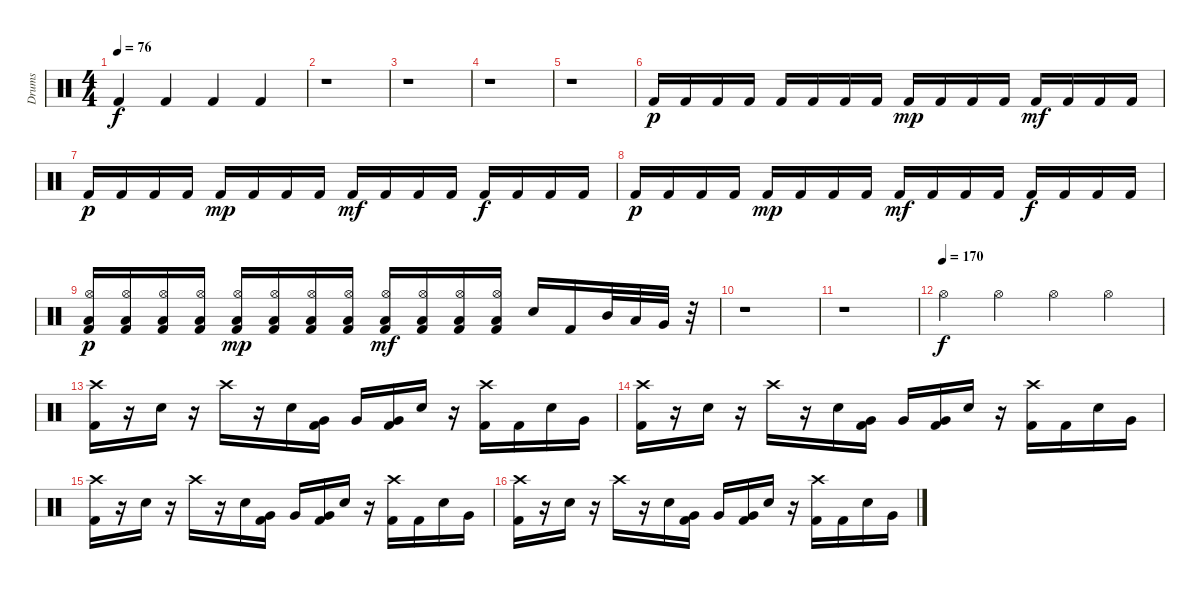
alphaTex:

\track ("Drums" "Drums") {instrument percussion}
\staff {score}
\articulation defaults
\ts (4 4)
\tempo 76
\clef neutral
\ks c "Kick (hit) 2".4{dy f} "Kick (hit) 2".4 "Kick (hit) 2".4 "Kick (hit) 2".4
|
r.1 |
r.1 |
r.1 |
r.1 |
"Kick (hit) 2".16{dy p} "Kick (hit) 2".16 "Kick (hit) 2".16 "Kick (hit) 2".16 "Kick (hit) 2".16 "Kick (hit) 2".16 "Kick (hit) 2".16 "Kick (hit) 2".16 "Kick (hit) 2".16{dy mp} "Kick (hit) 2".16 "Kick (hit) 2".16 "Kick (hit) 2".16 "Kick (hit) 2".16{dy mf} "Kick (hit) 2".16 "Kick (hit) 2".16 "Kick (hit) 2".16 |
"Kick (hit) 2".16{dy p} "Kick (hit) 2".16 "Kick (hit) 2".16 "Kick (hit) 2".16 "Kick (hit) 2".16{dy mp} "Kick (hit) 2".16 "Kick (hit) 2".16 "Kick (hit) 2".16 "Kick (hit) 2".16{dy mf} "Kick (hit) 2".16 "Kick (hit) 2".16 "Kick (hit) 2".16 "Kick (hit) 2".16{dy f} "Kick (hit) 2".16 "Kick (hit) 2".16 "Kick (hit) 2".16 |
"Kick (hit) 2".16{dy p} "Kick (hit) 2".16 "Kick (hit) 2".16 "Kick (hit) 2".16 "Kick (hit) 2".16{dy mp} "Kick (hit) 2".16 "Kick (hit) 2".16 "Kick (hit) 2".16 "Kick (hit) 2".16{dy mf} "Kick (hit) 2".16 "Kick (hit) 2".16 "Kick (hit) 2".16 "Kick (hit) 2".16{dy f} "Kick (hit) 2".16 "Kick (hit) 2".16 "Kick (hit) 2".16 |
("Hi-Hat (open)" "Kick (hit) 2" "Low Floor Tom (hit)").16{dy p} ("Hi-Hat (open)" "Kick (hit) 2" "Low Floor Tom (hit)").16 ("Hi-Hat (open)" "Kick (hit) 2" "Low Floor Tom (hit)").16 ("Hi-Hat (open)" "Kick (hit) 2" "Low Floor Tom (hit)").16 ("Hi-Hat (open)" "Kick (hit) 2" "Low Floor Tom (hit)").16{dy mp} ("Hi-Hat (open)" "Kick (hit) 2" "Low Floor Tom (hit)").16 ("Hi-Hat (open)" "Kick (hit) 2" "Low Floor Tom (hit)").16 ("Hi-Hat (open)" "Kick (hit) 2" "Low Floor Tom (hit)").16 ("Hi-Hat (open)" "Kick (hit) 2" "Low Floor Tom (hit)").16{dy mf} ("Hi-Hat (open)" "Kick (hit) 2" "Low Floor Tom (hit)").16 ("Hi-Hat (open)" "Kick (hit) 2" "Low Floor Tom (hit)").16 ("Hi-Hat (open)" "Kick (hit) 2" "Low Floor Tom (hit)").16 "Electric Snare (hit)".16 "Kick (hit) 2".16 "Mid Tom (hit)".32 "Low Tom (hit)".32 "Very Low Tom (hit)".32 r.32 |
r.1 |
r.1 |
\tempo (170)
"Hi-Hat (open)".4{dy f} "Hi-Hat (open)".4 "Hi-Hat (open)".4 "Hi-Hat (open)".4 |
("Crash high (hit)" "Kick (hit) 2").16 r.16 "Electric Snare (hit)".16 r.16 "Crash high (hit)".16 r.16 "Electric Snare (hit)".16 ("Very Low Tom (hit)" "Kick (hit) 2").16 "Very Low Tom (hit)".16 ("Very Low Tom (hit)" "Kick (hit) 2").16 "Electric Snare (hit)".16 r.16 ("Crash high (hit)" "Kick (hit) 2").16 "Kick (hit) 2".16 "Electric Snare (hit)".16 "Very Low Tom (hit)".16 |
("Crash high (hit)" "Kick (hit) 2").16 r.16 "Electric Snare (hit)".16 r.16 "Crash high (hit)".16 r.16 "Electric Snare (hit)".16 ("Very Low Tom (hit)" "Kick (hit) 2").16 "Very Low Tom (hit)".16 ("Very Low Tom (hit)" "Kick (hit) 2").16 "Electric Snare (hit)".16 r.16 ("Crash high (hit)" "Kick (hit) 2").16 "Kick (hit) 2".16 "Electric Snare (hit)".16 "Very Low Tom (hit)".16 |
("Crash high (hit)" "Kick (hit) 2").16 r.16 "Electric Snare (hit)".16 r.16 "Crash high (hit)".16 r.16 "Electric Snare (hit)".16 ("Very Low Tom (hit)" "Kick (hit) 2").16 "Very Low Tom (hit)".16 ("Very Low Tom (hit)" "Kick (hit) 2").16 "Electric Snare (hit)".16 r.16 ("Crash high (hit)" "Kick (hit) 2").16 "Kick (hit) 2".16 "Electric Snare (hit)".16 "Very Low Tom (hit)".16 |
("Crash high (hit)" "Kick (hit) 2").16 r.16 "Electric Snare (hit)".16 r.16 "Crash high (hit)".16 r.16 "Electric Snare (hit)".16 ("Very Low Tom (hit)" "Kick (hit) 2").16 "Very Low Tom (hit)".16 ("Very Low Tom (hit)" "Kick (hit) 2").16 "Electric Snare (hit)".16 r.16 ("Crash high (hit)" "Kick (hit) 2").16 "Kick (hit) 2".16 "Electric Snare (hit)".16 "Very Low Tom (hit)".16
